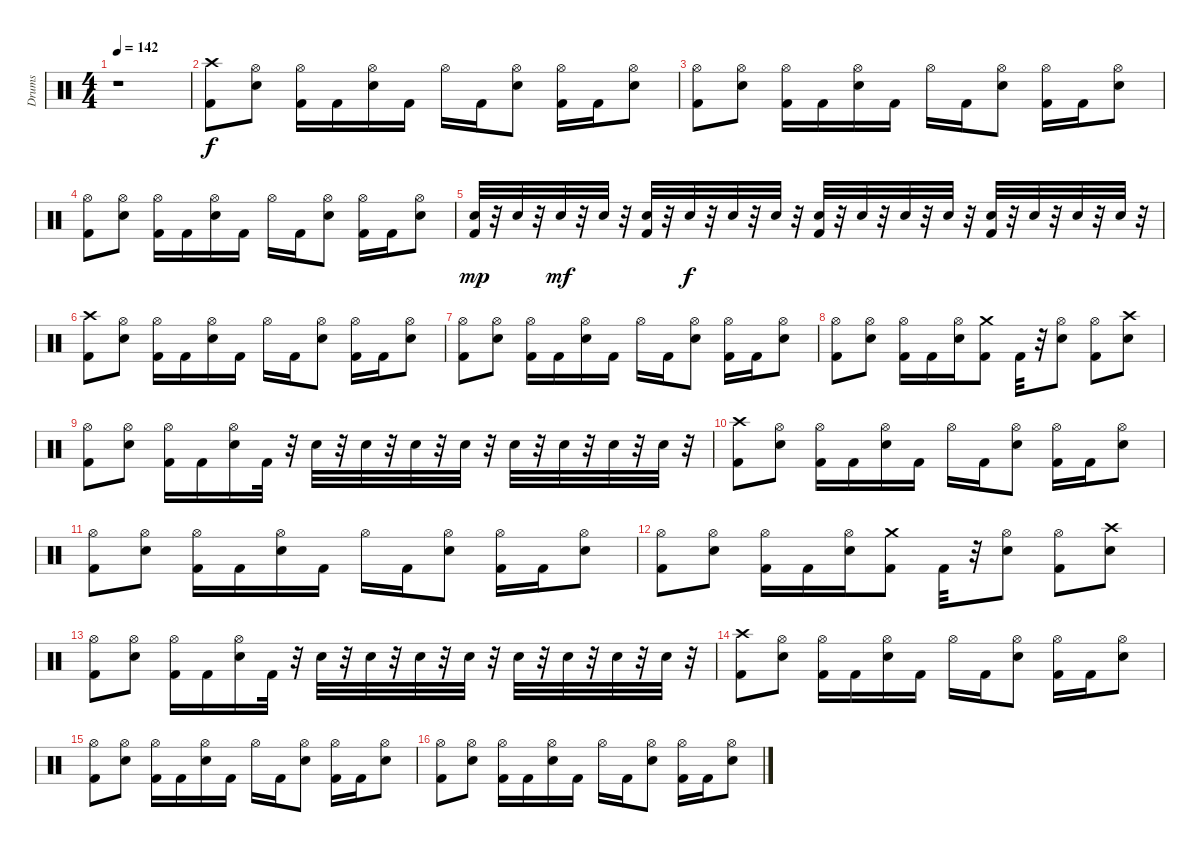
\track ("Drums" "Drums") {instrument percussion}
\staff {score}
\articulation defaults
\ts (4 4)
\tempo 142
\clef neutral
\ks c
r.1{dy f} |
("Kick (hit) 2" "Crash high (hit)").8 ("Electric Snare (hit)" "Hi-Hat (open)").8 ("Hi-Hat (open)" "Kick (hit) 2").16 "Kick (hit) 2".16 ("Hi-Hat (open)" "Electric Snare (hit)").16 "Kick (hit) 2".16 "Hi-Hat (open)".16 "Kick (hit) 2".16 ("Hi-Hat (open)" "Electric Snare (hit)").8 ("Hi-Hat (open)" "Kick (hit) 2").16 "Kick (hit) 2".16 ("Hi-Hat (open)" "Electric Snare (hit)").8 |
("Kick (hit) 2" "Hi-Hat (open)").8 ("Electric Snare (hit)" "Hi-Hat (open)").8 ("Hi-Hat (open)" "Kick (hit) 2").16 "Kick (hit) 2".16 ("Hi-Hat (open)" "Electric Snare (hit)").16 "Kick (hit) 2".16 "Hi-Hat (open)".16 "Kick (hit) 2".16 ("Hi-Hat (open)" "Electric Snare (hit)").8 ("Hi-Hat (open)" "Kick (hit) 2").16 "Kick (hit) 2".16 ("Hi-Hat (open)" "Electric Snare (hit)").8 |
("Kick (hit) 2" "Hi-Hat (open)").8 ("Electric Snare (hit)" "Hi-Hat (open)").8 ("Hi-Hat (open)" "Kick (hit) 2").16 "Kick (hit) 2".16 ("Hi-Hat (open)" "Electric Snare (hit)").16 "Kick (hit) 2".16 "Hi-Hat (open)".16 "Kick (hit) 2".16 ("Hi-Hat (open)" "Electric Snare (hit)").8 ("Hi-Hat (open)" "Kick (hit) 2").16 "Kick (hit) 2".16 ("Hi-Hat (open)" "Electric Snare (hit)").8 |
("Electric Snare (hit)" "Kick (hit) 2").32{dy mp} r.32 "Electric Snare (hit)".32 r.32 "Electric Snare (hit)".32{dy mf} r.32 "Electric Snare (hit)".32 r.32 ("Electric Snare (hit)" "Kick (hit) 2").32 r.32 "Electric Snare (hit)".32{dy f} r.32 "Electric Snare (hit)".32 r.32 "Electric Snare (hit)".32 r.32 ("Kick (hit) 2" "Electric Snare (hit)").32 r.32 "Electric Snare (hit)".32 r.32 "Electric Snare (hit)".32 r.32 "Electric Snare (hit)".32 r.32 ("Kick (hit) 2" "Electric Snare (hit)").32 r.32 "Electric Snare (hit)".32 r.32 "Electric Snare (hit)".32 r.32 "Electric Snare (hit)".32 r.32 |
("Kick (hit) 2" "Crash high (hit)").8 ("Electric Snare (hit)" "Hi-Hat (open)").8 ("Hi-Hat (open)" "Kick (hit) 2").16 "Kick (hit) 2".16 ("Hi-Hat (open)" "Electric Snare (hit)").16 "Kick (hit) 2".16 "Hi-Hat (open)".16 "Kick (hit) 2".16 ("Hi-Hat (open)" "Electric Snare (hit)").8 ("Hi-Hat (open)" "Kick (hit) 2").16 "Kick (hit) 2".16 ("Hi-Hat (open)" "Electric Snare (hit)").8 |
("Kick (hit) 2" "Hi-Hat (open)").8 ("Electric Snare (hit)" "Hi-Hat (open)").8 ("Hi-Hat (open)" "Kick (hit) 2").16 "Kick (hit) 2".16 ("Hi-Hat (open)" "Electric Snare (hit)").16 "Kick (hit) 2".16 "Hi-Hat (open)".16 "Kick (hit) 2".16 ("Hi-Hat (open)" "Electric Snare (hit)").8 ("Hi-Hat (open)" "Kick (hit) 2").16 "Kick (hit) 2".16 ("Hi-Hat (open)" "Electric Snare (hit)").8 |
("Kick (hit) 2" "Hi-Hat (open)").8 ("Electric Snare (hit)" "Hi-Hat (open)").8 ("Hi-Hat (open)" "Kick (hit) 2").16 "Kick (hit) 2".16 ("Hi-Hat (open)" "Electric Snare (hit)").16 ("Crash medium (hit)" "Kick (hit) 2").8 "Kick (hit) 2".32 r.32 ("Hi-Hat (open)" "Electric Snare (hit)").8 ("Kick (hit) 2" "Hi-Hat (open)").8 ("Electric Snare (hit)" "Crash high (hit)").8 |
("Kick (hit) 2" "Hi-Hat (open)").8 ("Electric Snare (hit)" "Hi-Hat (open)").8 ("Hi-Hat (open)" "Kick (hit) 2").16 "Kick (hit) 2".16 ("Hi-Hat (open)" "Electric Snare (hit)").16 "Kick (hit) 2".32 r.32 "Electric Snare (hit)".32 r.32 "Electric Snare (hit)".32 r.32 "Electric Snare (hit)".32 r.32 "Electric Snare (hit)".32 r.32 "Electric Snare (hit)".32 r.32 "Electric Snare (hit)".32 r.32 "Electric Snare (hit)".32 r.32 "Electric Snare (hit)".32 r.32 |
("Kick (hit) 2" "Crash high (hit)").8 ("Electric Snare (hit)" "Hi-Hat (open)").8 ("Hi-Hat (open)" "Kick (hit) 2").16 "Kick (hit) 2".16 ("Hi-Hat (open)" "Electric Snare (hit)").16 "Kick (hit) 2".16 "Hi-Hat (open)".16 "Kick (hit) 2".16 ("Hi-Hat (open)" "Electric Snare (hit)").8 ("Hi-Hat (open)" "Kick (hit) 2").16 "Kick (hit) 2".16 ("Hi-Hat (open)" "Electric Snare (hit)").8 |
("Kick (hit) 2" "Hi-Hat (open)").8 ("Electric Snare (hit)" "Hi-Hat (open)").8 ("Hi-Hat (open)" "Kick (hit) 2").16 "Kick (hit) 2".16 ("Hi-Hat (open)" "Electric Snare (hit)").16 "Kick (hit) 2".16 "Hi-Hat (open)".16 "Kick (hit) 2".16 ("Hi-Hat (open)" "Electric Snare (hit)").8 ("Hi-Hat (open)" "Kick (hit) 2").16 "Kick (hit) 2".16 ("Hi-Hat (open)" "Electric Snare (hit)").8 |
("Kick (hit) 2" "Hi-Hat (open)").8 ("Electric Snare (hit)" "Hi-Hat (open)").8 ("Hi-Hat (open)" "Kick (hit) 2").16 "Kick (hit) 2".16 ("Hi-Hat (open)" "Electric Snare (hit)").16 ("Crash medium (hit)" "Kick (hit) 2").8 "Kick (hit) 2".32 r.32 ("Hi-Hat (open)" "Electric Snare (hit)").8 ("Kick (hit) 2" "Hi-Hat (open)").8 ("Electric Snare (hit)" "Crash high (hit)").8 |
("Kick (hit) 2" "Hi-Hat (open)").8 ("Electric Snare (hit)" "Hi-Hat (open)").8 ("Hi-Hat (open)" "Kick (hit) 2").16 "Kick (hit) 2".16 ("Hi-Hat (open)" "Electric Snare (hit)").16 "Kick (hit) 2".32 r.32 "Electric Snare (hit)".32 r.32 "Electric Snare (hit)".32 r.32 "Electric Snare (hit)".32 r.32 "Electric Snare (hit)".32 r.32 "Electric Snare (hit)".32 r.32 "Electric Snare (hit)".32 r.32 "Electric Snare (hit)".32 r.32 "Electric Snare (hit)".32 r.32 |
("Kick (hit) 2" "Crash high (hit)").8 ("Electric Snare (hit)" "Hi-Hat (open)").8 ("Hi-Hat (open)" "Kick (hit) 2").16 "Kick (hit) 2".16 ("Hi-Hat (open)" "Electric Snare (hit)").16 "Kick (hit) 2".16 "Hi-Hat (open)".16 "Kick (hit) 2".16 ("Hi-Hat (open)" "Electric Snare (hit)").8 ("Hi-Hat (open)" "Kick (hit) 2").16 "Kick (hit) 2".16 ("Hi-Hat (open)" "Electric Snare (hit)").8 |
("Kick (hit) 2" "Hi-Hat (open)").8 ("Electric Snare (hit)" "Hi-Hat (open)").8 ("Hi-Hat (open)" "Kick (hit) 2").16 "Kick (hit) 2".16 ("Hi-Hat (open)" "Electric Snare (hit)").16 "Kick (hit) 2".16 "Hi-Hat (open)".16 "Kick (hit) 2".16 ("Hi-Hat (open)" "Electric Snare (hit)").8 ("Hi-Hat (open)" "Kick (hit) 2").16 "Kick (hit) 2".16 ("Hi-Hat (open)" "Electric Snare (hit)").8 |
("Kick (hit) 2" "Hi-Hat (open)").8 ("Electric Snare (hit)" "Hi-Hat (open)").8 ("Hi-Hat (open)" "Kick (hit) 2").16 "Kick (hit) 2".16 ("Hi-Hat (open)" "Electric Snare (hit)").16 "Kick (hit) 2".16 "Hi-Hat (open)".16 "Kick (hit) 2".16 ("Hi-Hat (open)" "Electric Snare (hit)").8 ("Hi-Hat (open)" "Kick (hit) 2").16 "Kick (hit) 2".16 ("Hi-Hat (open)" "Electric Snare (hit)").8
